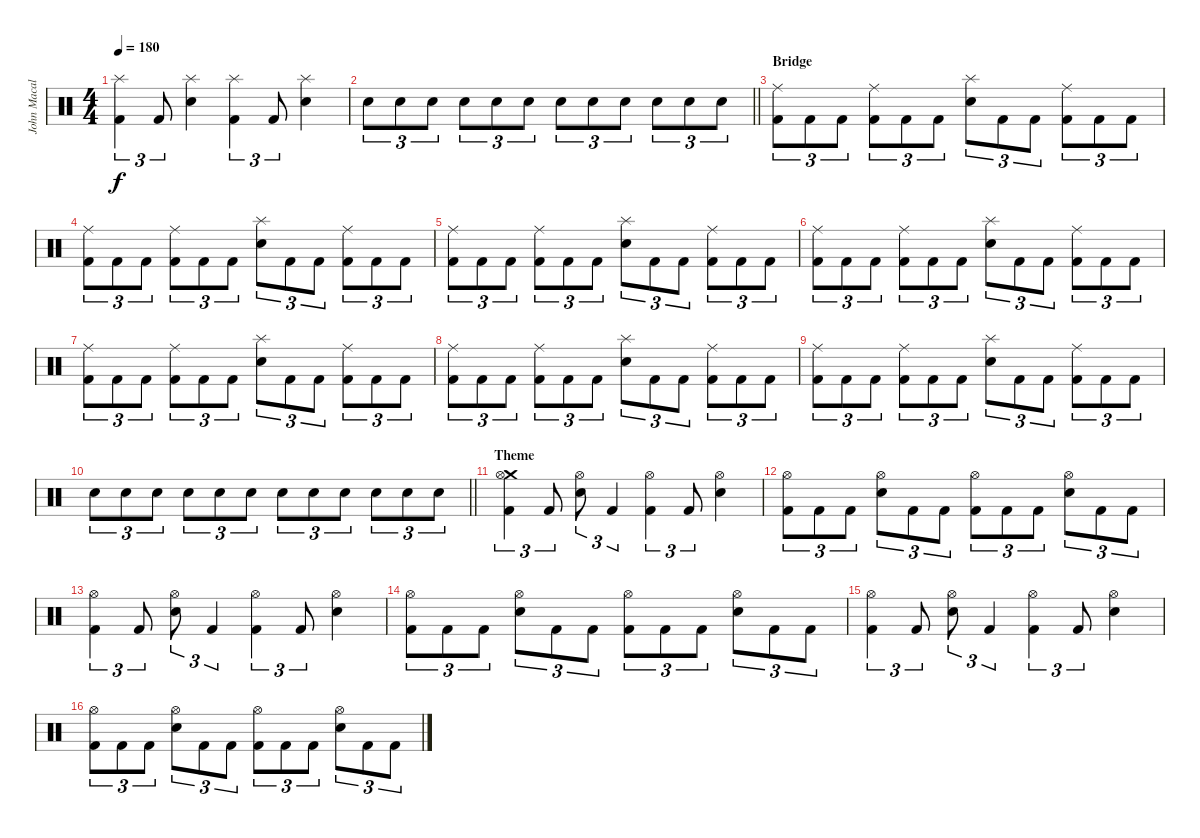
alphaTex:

\track ("John Macaluso" "John Macal") {instrument percussion}
\staff {score}
\articulation defaults
\ts (4 4)
\tempo 180
\clef neutral
\ks c
("Splash (hit)" "Kick (hit) 2").4{tu (3 2) dy f} "Kick (hit) 2".8{tu (3 2)} ("Splash (hit)" "Snare (hit) 2").4 ("Splash (hit)" "Kick (hit) 2").4{tu (3 2)} "Kick (hit) 2".8{tu (3 2)} ("Splash (hit)" "Snare (hit) 2").4 |
\barLineRight lightlight "Snare (hit) 2".8{tu (3 2)} "Snare (hit) 2".8{tu (3 2)} "Snare (hit) 2".8{tu (3 2)} "Snare (hit) 2".8{tu (3 2)} "Snare (hit) 2".8{tu (3 2)} "Snare (hit) 2".8{tu (3 2)} "Snare (hit) 2".8{tu (3 2)} "Snare (hit) 2".8{tu (3 2)} "Snare (hit) 2".8{tu (3 2)} "Snare (hit) 2".8{tu (3 2)} "Snare (hit) 2".8{tu (3 2)} "Snare (hit) 2".8{tu (3 2)}
|
\section ("" "Bridge")
("Ride (middle)" "Kick (hit) 2").8{tu (3 2)} "Kick (hit) 2".8{tu (3 2)} "Kick (hit) 2".8{tu (3 2)} ("Ride (middle)" "Kick (hit) 2").8{tu (3 2)} "Kick (hit) 2".8{tu (3 2)} "Kick (hit) 2".8{tu (3 2)} ("Splash (hit)" "Snare (hit) 2").8{tu (3 2)} "Kick (hit) 2".8{tu (3 2)} "Kick (hit) 2".8{tu (3 2)} ("Ride (middle)" "Kick (hit) 2").8{tu (3 2)} "Kick (hit) 2".8{tu (3 2)} "Kick (hit) 2".8{tu (3 2)} |
("Ride (middle)" "Kick (hit) 2").8{tu (3 2)} "Kick (hit) 2".8{tu (3 2)} "Kick (hit) 2".8{tu (3 2)} ("Ride (middle)" "Kick (hit) 2").8{tu (3 2)} "Kick (hit) 2".8{tu (3 2)} "Kick (hit) 2".8{tu (3 2)} ("Splash (hit)" "Snare (hit) 2").8{tu (3 2)} "Kick (hit) 2".8{tu (3 2)} "Kick (hit) 2".8{tu (3 2)} ("Ride (middle)" "Kick (hit) 2").8{tu (3 2)} "Kick (hit) 2".8{tu (3 2)} "Kick (hit) 2".8{tu (3 2)} |
("Ride (middle)" "Kick (hit) 2").8{tu (3 2)} "Kick (hit) 2".8{tu (3 2)} "Kick (hit) 2".8{tu (3 2)} ("Ride (middle)" "Kick (hit) 2").8{tu (3 2)} "Kick (hit) 2".8{tu (3 2)} "Kick (hit) 2".8{tu (3 2)} ("Splash (hit)" "Snare (hit) 2").8{tu (3 2)} "Kick (hit) 2".8{tu (3 2)} "Kick (hit) 2".8{tu (3 2)} ("Ride (middle)" "Kick (hit) 2").8{tu (3 2)} "Kick (hit) 2".8{tu (3 2)} "Kick (hit) 2".8{tu (3 2)} |
("Ride (middle)" "Kick (hit) 2").8{tu (3 2)} "Kick (hit) 2".8{tu (3 2)} "Kick (hit) 2".8{tu (3 2)} ("Ride (middle)" "Kick (hit) 2").8{tu (3 2)} "Kick (hit) 2".8{tu (3 2)} "Kick (hit) 2".8{tu (3 2)} ("Splash (hit)" "Snare (hit) 2").8{tu (3 2)} "Kick (hit) 2".8{tu (3 2)} "Kick (hit) 2".8{tu (3 2)} ("Ride (middle)" "Kick (hit) 2").8{tu (3 2)} "Kick (hit) 2".8{tu (3 2)} "Kick (hit) 2".8{tu (3 2)} |
("Ride (middle)" "Kick (hit) 2").8{tu (3 2)} "Kick (hit) 2".8{tu (3 2)} "Kick (hit) 2".8{tu (3 2)} ("Ride (middle)" "Kick (hit) 2").8{tu (3 2)} "Kick (hit) 2".8{tu (3 2)} "Kick (hit) 2".8{tu (3 2)} ("Splash (hit)" "Snare (hit) 2").8{tu (3 2)} "Kick (hit) 2".8{tu (3 2)} "Kick (hit) 2".8{tu (3 2)} ("Ride (middle)" "Kick (hit) 2").8{tu (3 2)} "Kick (hit) 2".8{tu (3 2)} "Kick (hit) 2".8{tu (3 2)} |
("Ride (middle)" "Kick (hit) 2").8{tu (3 2)} "Kick (hit) 2".8{tu (3 2)} "Kick (hit) 2".8{tu (3 2)} ("Ride (middle)" "Kick (hit) 2").8{tu (3 2)} "Kick (hit) 2".8{tu (3 2)} "Kick (hit) 2".8{tu (3 2)} ("Splash (hit)" "Snare (hit) 2").8{tu (3 2)} "Kick (hit) 2".8{tu (3 2)} "Kick (hit) 2".8{tu (3 2)} ("Ride (middle)" "Kick (hit) 2").8{tu (3 2)} "Kick (hit) 2".8{tu (3 2)} "Kick (hit) 2".8{tu (3 2)} |
("Ride (middle)" "Kick (hit) 2").8{tu (3 2)} "Kick (hit) 2".8{tu (3 2)} "Kick (hit) 2".8{tu (3 2)} ("Ride (middle)" "Kick (hit) 2").8{tu (3 2)} "Kick (hit) 2".8{tu (3 2)} "Kick (hit) 2".8{tu (3 2)} ("Splash (hit)" "Snare (hit) 2").8{tu (3 2)} "Kick (hit) 2".8{tu (3 2)} "Kick (hit) 2".8{tu (3 2)} ("Ride (middle)" "Kick (hit) 2").8{tu (3 2)} "Kick (hit) 2".8{tu (3 2)} "Kick (hit) 2".8{tu (3 2)} |
\barLineRight lightlight "Snare (hit) 2".8{tu (3 2)} "Snare (hit) 2".8{tu (3 2)} "Snare (hit) 2".8{tu (3 2)} "Snare (hit) 2".8{tu (3 2)} "Snare (hit) 2".8{tu (3 2)} "Snare (hit) 2".8{tu (3 2)} "Snare (hit) 2".8{tu (3 2)} "Snare (hit) 2".8{tu (3 2)} "Snare (hit) 2".8{tu (3 2)} "Snare (hit) 2".8{tu (3 2)} "Snare (hit) 2".8{tu (3 2)} "Snare (hit) 2".8{tu (3 2)}
|
\section ("" "Theme")
("Crash medium (hit)" "Hi-Hat (open)" "Kick (hit) 2").4{tu (3 2)} "Kick (hit) 2".8{tu (3 2)} ("Hi-Hat (open)" "Snare (hit) 2").8{tu (3 2)} "Kick (hit) 2".4{tu (3 2)} ("Hi-Hat (open)" "Kick (hit) 2").4{tu (3 2)} "Kick (hit) 2".8{tu (3 2)} ("Hi-Hat (open)" "Snare (hit) 2").4 |
("Hi-Hat (open)" "Kick (hit) 2").8{tu (3 2)} "Kick (hit) 2".8{tu (3 2)} "Kick (hit) 2".8{tu (3 2)} ("Hi-Hat (open)" "Snare (hit) 2").8{tu (3 2)} "Kick (hit) 2".8{tu (3 2)} "Kick (hit) 2".8{tu (3 2)} ("Hi-Hat (open)" "Kick (hit) 2").8{tu (3 2)} "Kick (hit) 2".8{tu (3 2)} "Kick (hit) 2".8{tu (3 2)} ("Hi-Hat (open)" "Snare (hit) 2").8{tu (3 2)} "Kick (hit) 2".8{tu (3 2)} "Kick (hit) 2".8{tu (3 2)} |
("Hi-Hat (open)" "Kick (hit) 2").4{tu (3 2)} "Kick (hit) 2".8{tu (3 2)} ("Hi-Hat (open)" "Snare (hit) 2").8{tu (3 2)} "Kick (hit) 2".4{tu (3 2)} ("Hi-Hat (open)" "Kick (hit) 2").4{tu (3 2)} "Kick (hit) 2".8{tu (3 2)} ("Hi-Hat (open)" "Snare (hit) 2").4 |
("Hi-Hat (open)" "Kick (hit) 2").8{tu (3 2)} "Kick (hit) 2".8{tu (3 2)} "Kick (hit) 2".8{tu (3 2)} ("Hi-Hat (open)" "Snare (hit) 2").8{tu (3 2)} "Kick (hit) 2".8{tu (3 2)} "Kick (hit) 2".8{tu (3 2)} ("Hi-Hat (open)" "Kick (hit) 2").8{tu (3 2)} "Kick (hit) 2".8{tu (3 2)} "Kick (hit) 2".8{tu (3 2)} ("Hi-Hat (open)" "Snare (hit) 2").8{tu (3 2)} "Kick (hit) 2".8{tu (3 2)} "Kick (hit) 2".8{tu (3 2)} |
("Hi-Hat (open)" "Kick (hit) 2").4{tu (3 2)} "Kick (hit) 2".8{tu (3 2)} ("Hi-Hat (open)" "Snare (hit) 2").8{tu (3 2)} "Kick (hit) 2".4{tu (3 2)} ("Hi-Hat (open)" "Kick (hit) 2").4{tu (3 2)} "Kick (hit) 2".8{tu (3 2)} ("Hi-Hat (open)" "Snare (hit) 2").4 |
("Hi-Hat (open)" "Kick (hit) 2").8{tu (3 2)} "Kick (hit) 2".8{tu (3 2)} "Kick (hit) 2".8{tu (3 2)} ("Hi-Hat (open)" "Snare (hit) 2").8{tu (3 2)} "Kick (hit) 2".8{tu (3 2)} "Kick (hit) 2".8{tu (3 2)} ("Hi-Hat (open)" "Kick (hit) 2").8{tu (3 2)} "Kick (hit) 2".8{tu (3 2)} "Kick (hit) 2".8{tu (3 2)} ("Hi-Hat (open)" "Snare (hit) 2").8{tu (3 2)} "Kick (hit) 2".8{tu (3 2)} "Kick (hit) 2".8{tu (3 2)}
